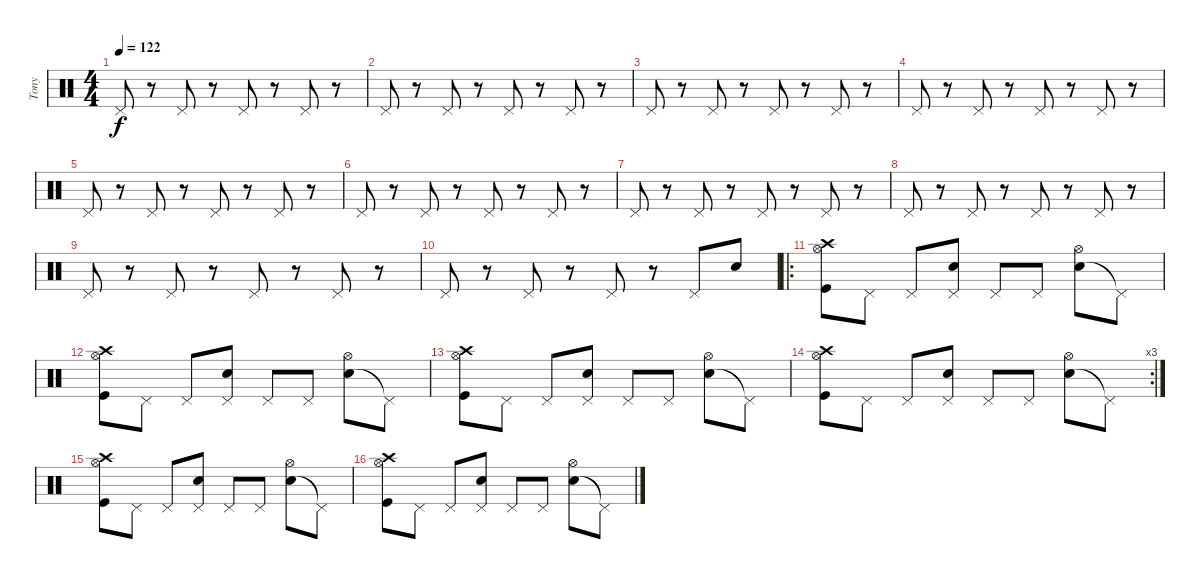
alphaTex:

\track ("Tony" "Tony") {instrument percussion}
\staff {score}
\articulation defaults
\ts (4 4)
\tempo 122
\clef neutral
\ks c "Pedal Hi-Hat (hit)".8{dy f}
r.8 "Pedal Hi-Hat (hit)".8 r.8 "Pedal Hi-Hat (hit)".8 r.8 "Pedal Hi-Hat (hit)".8 r.8 |
"Pedal Hi-Hat (hit)".8 r.8 "Pedal Hi-Hat (hit)".8 r.8 "Pedal Hi-Hat (hit)".8 r.8 "Pedal Hi-Hat (hit)".8 r.8 |
"Pedal Hi-Hat (hit)".8 r.8 "Pedal Hi-Hat (hit)".8 r.8 "Pedal Hi-Hat (hit)".8 r.8 "Pedal Hi-Hat (hit)".8 r.8 |
"Pedal Hi-Hat (hit)".8 r.8 "Pedal Hi-Hat (hit)".8 r.8 "Pedal Hi-Hat (hit)".8 r.8 "Pedal Hi-Hat (hit)".8 r.8 |
"Pedal Hi-Hat (hit)".8 r.8 "Pedal Hi-Hat (hit)".8 r.8 "Pedal Hi-Hat (hit)".8 r.8 "Pedal Hi-Hat (hit)".8 r.8 |
"Pedal Hi-Hat (hit)".8 r.8 "Pedal Hi-Hat (hit)".8 r.8 "Pedal Hi-Hat (hit)".8 r.8 "Pedal Hi-Hat (hit)".8 r.8 |
"Pedal Hi-Hat (hit)".8 r.8 "Pedal Hi-Hat (hit)".8 r.8 "Pedal Hi-Hat (hit)".8 r.8 "Pedal Hi-Hat (hit)".8 r.8 |
"Pedal Hi-Hat (hit)".8 r.8 "Pedal Hi-Hat (hit)".8 r.8 "Pedal Hi-Hat (hit)".8 r.8 "Pedal Hi-Hat (hit)".8 r.8 |
"Pedal Hi-Hat (hit)".8 r.8 "Pedal Hi-Hat (hit)".8 r.8 "Pedal Hi-Hat (hit)".8 r.8 "Pedal Hi-Hat (hit)".8 r.8 |
"Pedal Hi-Hat (hit)".8 r.8 "Pedal Hi-Hat (hit)".8 r.8 "Pedal Hi-Hat (hit)".8 r.8 "Pedal Hi-Hat (hit)".8 "Snare (hit) 2".8 |
\ro
("Kick (hit)" "Hi-Hat (open)" "Crash high (hit)").8 "Pedal Hi-Hat (hit)".8 "Pedal Hi-Hat (hit)".8 ("Snare (hit) 2" "Pedal Hi-Hat (hit)").8 "Pedal Hi-Hat (hit)".8 "Pedal Hi-Hat (hit)".8 ("Snare (hit) 2" "Hi-Hat (open)").8 "Pedal Hi-Hat (hit)"{t}.8 |
("Kick (hit)" "Hi-Hat (open)" "Crash high (hit)").8 "Pedal Hi-Hat (hit)".8 "Pedal Hi-Hat (hit)".8 ("Snare (hit) 2" "Pedal Hi-Hat (hit)").8 "Pedal Hi-Hat (hit)".8 "Pedal Hi-Hat (hit)".8 ("Snare (hit) 2" "Hi-Hat (open)").8 "Pedal Hi-Hat (hit)"{t}.8 |
("Kick (hit)" "Hi-Hat (open)" "Crash high (hit)").8 "Pedal Hi-Hat (hit)".8 "Pedal Hi-Hat (hit)".8 ("Snare (hit) 2" "Pedal Hi-Hat (hit)").8 "Pedal Hi-Hat (hit)".8 "Pedal Hi-Hat (hit)".8 ("Snare (hit) 2" "Hi-Hat (open)").8 "Pedal Hi-Hat (hit)"{t}.8 |
\rc 3
("Kick (hit)" "Hi-Hat (open)" "Crash high (hit)").8 "Pedal Hi-Hat (hit)".8 "Pedal Hi-Hat (hit)".8 ("Snare (hit) 2" "Pedal Hi-Hat (hit)").8 "Pedal Hi-Hat (hit)".8 "Pedal Hi-Hat (hit)".8 ("Snare (hit) 2" "Hi-Hat (open)").8 "Pedal Hi-Hat (hit)"{t}.8 |
("Kick (hit)" "Hi-Hat (open)" "Crash high (hit)").8 "Pedal Hi-Hat (hit)".8 "Pedal Hi-Hat (hit)".8 ("Snare (hit) 2" "Pedal Hi-Hat (hit)").8 "Pedal Hi-Hat (hit)".8 "Pedal Hi-Hat (hit)".8 ("Snare (hit) 2" "Hi-Hat (open)").8 "Pedal Hi-Hat (hit)"{t}.8 |
("Kick (hit)" "Hi-Hat (open)" "Crash high (hit)").8 "Pedal Hi-Hat (hit)".8 "Pedal Hi-Hat (hit)".8 ("Snare (hit) 2" "Pedal Hi-Hat (hit)").8 "Pedal Hi-Hat (hit)".8 "Pedal Hi-Hat (hit)".8 ("Snare (hit) 2" "Hi-Hat (open)").8 "Pedal Hi-Hat (hit)"{t}.8
